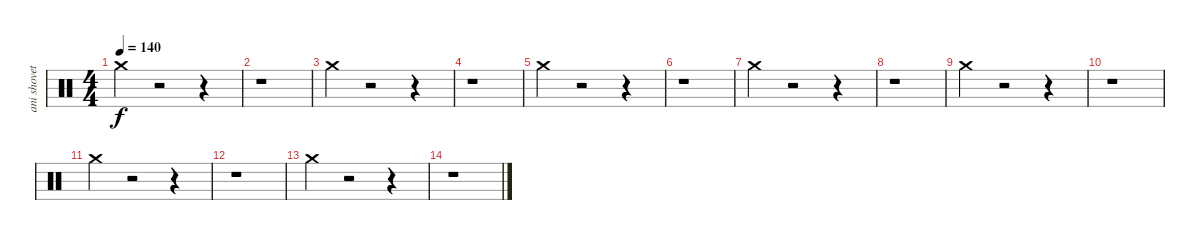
\track ("ani shovet! (itamar)" "ani shovet") {instrument percussion}
\staff {score}
\articulation defaults
\ts (4 4)
\tempo 140
\clef neutral
\ks c "Crash medium (hit)".4{dy f}
r.2 r.4 |
r.1 |
"Crash medium (hit)".4 r.2 r.4 |
r.1 |
"Crash medium (hit)".4 r.2 r.4 |
r.1 |
"Crash medium (hit)".4 r.2 r.4 |
r.1 |
"Crash medium (hit)".4 r.2 r.4 |
r.1 |
"Crash medium (hit)".4 r.2 r.4 |
r.1 |
"Crash medium (hit)".4 r.2 r.4 |
r.1
